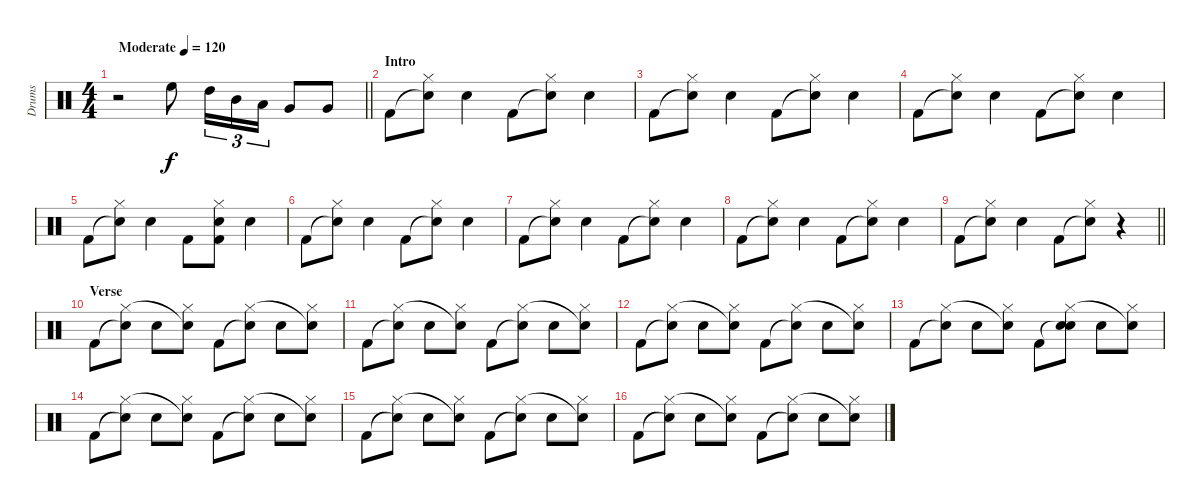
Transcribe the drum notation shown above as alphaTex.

\track ("Drums" "Drums") {instrument percussion}
\staff {score}
\articulation defaults
\ts (4 4)
\tempo (120 "Moderate")
\clef neutral
\barLineRight lightlight
\ks c
r.2{dy f} "High Floor Tom (hit)".8 "High Tom (hit)".16{tu (3 2)} "Mid Tom (hit)".16{tu (3 2)} "Low Tom (hit)".16{tu (3 2)} "Very Low Tom (hit)".8 "Very Low Tom (hit)".8 |
\section ("" "Intro")
"Kick (hit) 2".8 ("Snare (hit)"{t} "Hi-Hat (closed)").8 "Snare (hit) 2".4 "Kick (hit) 2".8 ("Snare (hit)"{t} "Hi-Hat (closed)").8 "Snare (hit) 2".4 |
"Kick (hit) 2".8 ("Snare (hit)"{t} "Hi-Hat (closed)").8 "Snare (hit) 2".4 "Kick (hit) 2".8 ("Snare (hit)"{t} "Hi-Hat (closed)").8 "Snare (hit) 2".4 |
"Kick (hit) 2".8 ("Snare (hit)"{t} "Hi-Hat (closed)").8 "Snare (hit) 2".4 "Kick (hit) 2".8 ("Snare (hit)"{t} "Hi-Hat (closed)").8 "Snare (hit) 2".4 |
"Kick (hit) 2".8 ("Snare (hit)"{t} "Hi-Hat (closed)").8 "Snare (hit) 2".4 "Kick (hit) 2".8 ("Kick (hit) 2" "Hi-Hat (closed)" "Snare (hit) 2").8 "Snare (hit) 2".4 |
"Kick (hit) 2".8 ("Snare (hit)"{t} "Hi-Hat (closed)").8 "Snare (hit) 2".4 "Kick (hit) 2".8 ("Snare (hit)"{t} "Hi-Hat (closed)").8 "Snare (hit) 2".4 |
"Kick (hit) 2".8 ("Snare (hit)"{t} "Hi-Hat (closed)").8 "Snare (hit) 2".4 "Kick (hit) 2".8 ("Snare (hit)"{t} "Hi-Hat (closed)").8 "Snare (hit) 2".4 |
"Kick (hit) 2".8 ("Snare (hit)"{t} "Hi-Hat (closed)").8 "Snare (hit) 2".4 "Kick (hit) 2".8 ("Snare (hit)"{t} "Hi-Hat (closed)").8 "Snare (hit) 2".4 |
\barLineRight lightlight "Kick (hit) 2".8
("Snare (hit)"{t} "Hi-Hat (closed)").8 "Snare (hit) 2".4 "Kick (hit) 2".8 ("Snare (hit)"{t} "Hi-Hat (closed)").8 r.4 |
\section ("" "Verse")
"Kick (hit) 2".8 ("Snare (hit)"{t} "Hi-Hat (closed)").8 "Snare (hit) 2".8 ("Hi-Hat (closed)" "Snare (hit)"{t}).8 "Kick (hit) 2".8 ("Snare (hit)"{t} "Hi-Hat (closed)").8 "Snare (hit) 2".8 ("Hi-Hat (closed)" "Snare (hit)"{t}).8 |
"Kick (hit) 2".8 ("Snare (hit)"{t} "Hi-Hat (closed)").8 "Snare (hit) 2".8 ("Hi-Hat (closed)" "Snare (hit)"{t}).8 "Kick (hit) 2".8 ("Snare (hit)"{t} "Hi-Hat (closed)").8 "Snare (hit) 2".8 ("Hi-Hat (closed)" "Snare (hit)"{t}).8 |
"Kick (hit) 2".8 ("Snare (hit)"{t} "Hi-Hat (closed)").8 "Snare (hit) 2".8 ("Hi-Hat (closed)" "Snare (hit)"{t}).8 "Kick (hit) 2".8 ("Snare (hit)"{t} "Hi-Hat (closed)").8 "Snare (hit) 2".8 ("Hi-Hat (closed)" "Snare (hit)"{t}).8 |
"Kick (hit) 2".8 ("Snare (hit)"{t} "Hi-Hat (closed)").8 "Snare (hit) 2".8 ("Hi-Hat (closed)" "Snare (hit)"{t}).8 "Kick (hit) 2".8 ("Snare (hit)"{t} "Hi-Hat (closed)" "Snare (hit) 2").8 "Snare (hit) 2".8 ("Hi-Hat (closed)" "Snare (hit)"{t}).8 |
"Kick (hit) 2".8 ("Snare (hit)"{t} "Hi-Hat (closed)").8 "Snare (hit) 2".8 ("Hi-Hat (closed)" "Snare (hit)"{t}).8 "Kick (hit) 2".8 ("Snare (hit)"{t} "Hi-Hat (closed)").8 "Snare (hit) 2".8 ("Hi-Hat (closed)" "Snare (hit)"{t}).8 |
"Kick (hit) 2".8 ("Snare (hit)"{t} "Hi-Hat (closed)").8 "Snare (hit) 2".8 ("Hi-Hat (closed)" "Snare (hit)"{t}).8 "Kick (hit) 2".8 ("Snare (hit)"{t} "Hi-Hat (closed)").8 "Snare (hit) 2".8 ("Hi-Hat (closed)" "Snare (hit)"{t}).8 |
"Kick (hit) 2".8 ("Snare (hit)"{t} "Hi-Hat (closed)").8 "Snare (hit) 2".8 ("Hi-Hat (closed)" "Snare (hit)"{t}).8 "Kick (hit) 2".8 ("Snare (hit)"{t} "Hi-Hat (closed)").8 "Snare (hit) 2".8 ("Hi-Hat (closed)" "Snare (hit)"{t}).8
